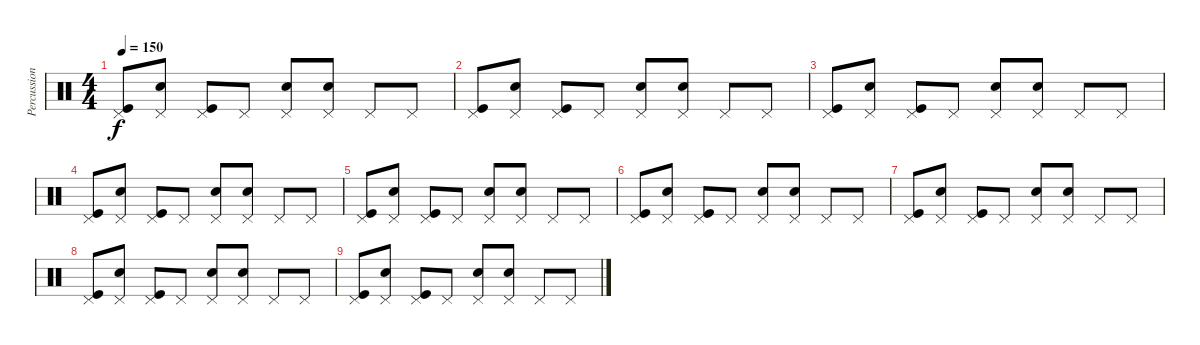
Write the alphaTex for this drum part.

\track ("Percussion" "Percussion") {instrument percussion}
\staff {score}
\articulation defaults
\ts (4 4)
\tempo 150
\clef neutral
\ks c
("Kick (hit)" "Pedal Hi-Hat (hit)").8{dy f} ("Electric Snare (hit)" "Pedal Hi-Hat (hit)").8 ("Kick (hit)" "Pedal Hi-Hat (hit)").8 "Pedal Hi-Hat (hit)".8 ("Electric Snare (hit)" "Pedal Hi-Hat (hit)").8 ("Electric Snare (hit)" "Pedal Hi-Hat (hit)").8 "Pedal Hi-Hat (hit)".8 "Pedal Hi-Hat (hit)".8 |
("Kick (hit)" "Pedal Hi-Hat (hit)").8 ("Electric Snare (hit)" "Pedal Hi-Hat (hit)").8 ("Kick (hit)" "Pedal Hi-Hat (hit)").8 "Pedal Hi-Hat (hit)".8 ("Electric Snare (hit)" "Pedal Hi-Hat (hit)").8 ("Electric Snare (hit)" "Pedal Hi-Hat (hit)").8 "Pedal Hi-Hat (hit)".8 "Pedal Hi-Hat (hit)".8 |
("Kick (hit)" "Pedal Hi-Hat (hit)").8 ("Electric Snare (hit)" "Pedal Hi-Hat (hit)").8 ("Kick (hit)" "Pedal Hi-Hat (hit)").8 "Pedal Hi-Hat (hit)".8 ("Electric Snare (hit)" "Pedal Hi-Hat (hit)").8 ("Electric Snare (hit)" "Pedal Hi-Hat (hit)").8 "Pedal Hi-Hat (hit)".8 "Pedal Hi-Hat (hit)".8 |
("Kick (hit)" "Pedal Hi-Hat (hit)").8 ("Electric Snare (hit)" "Pedal Hi-Hat (hit)").8 ("Kick (hit)" "Pedal Hi-Hat (hit)").8 "Pedal Hi-Hat (hit)".8 ("Electric Snare (hit)" "Pedal Hi-Hat (hit)").8 ("Electric Snare (hit)" "Pedal Hi-Hat (hit)").8 "Pedal Hi-Hat (hit)".8 "Pedal Hi-Hat (hit)".8 |
("Kick (hit)" "Pedal Hi-Hat (hit)").8 ("Electric Snare (hit)" "Pedal Hi-Hat (hit)").8 ("Kick (hit)" "Pedal Hi-Hat (hit)").8 "Pedal Hi-Hat (hit)".8 ("Electric Snare (hit)" "Pedal Hi-Hat (hit)").8 ("Electric Snare (hit)" "Pedal Hi-Hat (hit)").8 "Pedal Hi-Hat (hit)".8 "Pedal Hi-Hat (hit)".8 |
("Kick (hit)" "Pedal Hi-Hat (hit)").8 ("Electric Snare (hit)" "Pedal Hi-Hat (hit)").8 ("Kick (hit)" "Pedal Hi-Hat (hit)").8 "Pedal Hi-Hat (hit)".8 ("Electric Snare (hit)" "Pedal Hi-Hat (hit)").8 ("Electric Snare (hit)" "Pedal Hi-Hat (hit)").8 "Pedal Hi-Hat (hit)".8 "Pedal Hi-Hat (hit)".8 |
("Kick (hit)" "Pedal Hi-Hat (hit)").8 ("Electric Snare (hit)" "Pedal Hi-Hat (hit)").8 ("Kick (hit)" "Pedal Hi-Hat (hit)").8 "Pedal Hi-Hat (hit)".8 ("Electric Snare (hit)" "Pedal Hi-Hat (hit)").8 ("Electric Snare (hit)" "Pedal Hi-Hat (hit)").8 "Pedal Hi-Hat (hit)".8 "Pedal Hi-Hat (hit)".8 |
("Kick (hit)" "Pedal Hi-Hat (hit)").8 ("Electric Snare (hit)" "Pedal Hi-Hat (hit)").8 ("Kick (hit)" "Pedal Hi-Hat (hit)").8 "Pedal Hi-Hat (hit)".8 ("Electric Snare (hit)" "Pedal Hi-Hat (hit)").8 ("Electric Snare (hit)" "Pedal Hi-Hat (hit)").8 "Pedal Hi-Hat (hit)".8 "Pedal Hi-Hat (hit)".8 |
("Kick (hit)" "Pedal Hi-Hat (hit)").8 ("Electric Snare (hit)" "Pedal Hi-Hat (hit)").8 ("Kick (hit)" "Pedal Hi-Hat (hit)").8 "Pedal Hi-Hat (hit)".8 ("Electric Snare (hit)" "Pedal Hi-Hat (hit)").8 ("Electric Snare (hit)" "Pedal Hi-Hat (hit)").8 "Pedal Hi-Hat (hit)".8 "Pedal Hi-Hat (hit)".8
